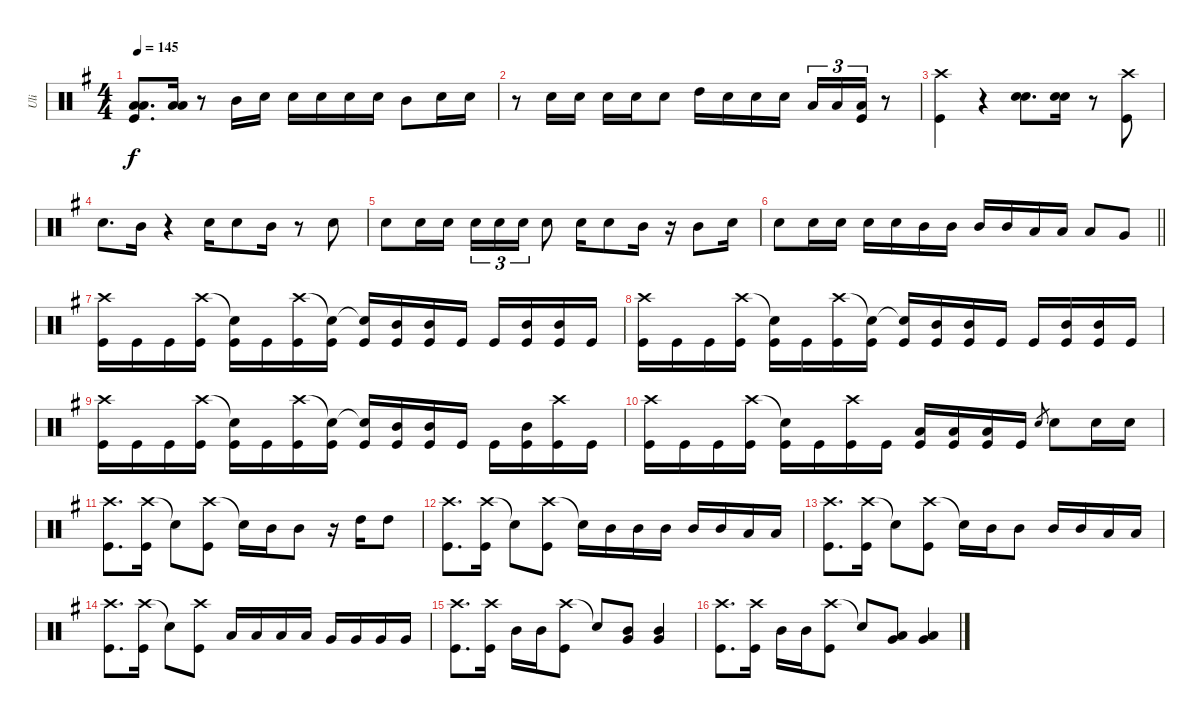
\track ("Uli" "Uli") {instrument percussion}
\staff {score}
\articulation defaults
\ts (4 4)
\tempo 145
\clef neutral
\ks eminor
("Low Tom (hit)" "Low Tom (hit)" "Kick (hit)").8{d dy f} ("Low Tom (hit)" "Low Tom (hit)").16 r.8 "Mid Tom (hit)".16 "Snare (hit) 2".16 "Snare (hit) 2".16 "Snare (hit) 2".16 "Snare (hit) 2".16 "Snare (hit) 2".16 "Mid Tom (hit)".8 "Snare (hit) 2".16 "Snare (hit) 2".16 |
r.8 "Snare (hit) 2".16 "Snare (hit) 2".16 "Snare (hit) 2".16 "Snare (hit) 2".16 "Snare (hit) 2".8 "High Tom (hit)".16 "Snare (hit) 2".16 "Snare (hit) 2".16 "Snare (hit) 2".16 "Low Tom (hit)".16{tu (3 2)} "Low Tom (hit)".16{tu (3 2)} ("Low Tom (hit)" "Kick (hit)").16{tu (3 2)} r.8 |
("Crash high (hit)" "Kick (hit)").4 r.4 ("Snare (hit) 2" "Snare (hit) 2").8{d} ("Snare (hit) 2" "Snare (hit) 2").16 r.8 ("Crash high (hit)" "Kick (hit)").8 |
"Snare (hit) 2".8{d} "Mid Tom (hit)".16 r.4 "Snare (hit) 2".16 "Snare (hit) 2".8 "Mid Tom (hit)".16 r.8 "Snare (hit) 2".8 |
"Snare (hit) 2".8 "Snare (hit) 2".16 "Snare (hit) 2".16 "Snare (hit) 2".16{tu (3 2)} "Snare (hit) 2".16{tu (3 2)} "Snare (hit) 2".16{tu (3 2)} "Snare (hit) 2".8 "Snare (hit) 2".16 "Snare (hit) 2".8 "Mid Tom (hit)".16 r.16 "Mid Tom (hit)".8 "Snare (hit) 2".16 |
\barLineRight lightlight "Snare (hit) 2".8 "Snare (hit) 2".16 "Snare (hit) 2".16 "Snare (hit) 2".16 "Snare (hit) 2".16 "Mid Tom (hit)".16 "Mid Tom (hit)".16 "Mid Tom (hit)".16 "Mid Tom (hit)".16 "Low Tom (hit)".16 "Low Tom (hit)".16 "Low Tom (hit)".8 "Very Low Tom (hit)".8
|
("Crash high (hit)" "Kick (hit)").16 "Kick (hit)".16 "Kick (hit)".16 ("Crash high (hit)" "Kick (hit)").16 ("Snare (hit)"{t} "Kick (hit)").16 "Kick (hit)".16 ("Crash high (hit)" "Kick (hit)").16 ("Snare (hit)"{t} "Kick (hit)").16 ("Snare (hit)"{t} "Kick (hit)").16 ("Mid Tom (hit)" "Kick (hit)").16 ("Mid Tom (hit)" "Kick (hit)").16 "Kick (hit)".16 "Kick (hit)".16 ("Mid Tom (hit)" "Kick (hit)").16 ("Mid Tom (hit)" "Kick (hit)").16 "Kick (hit)".16 |
("Crash high (hit)" "Kick (hit)").16 "Kick (hit)".16 "Kick (hit)".16 ("Crash high (hit)" "Kick (hit)").16 ("Snare (hit)"{t} "Kick (hit)").16 "Kick (hit)".16 ("Crash high (hit)" "Kick (hit)").16 ("Snare (hit)"{t} "Kick (hit)").16 ("Snare (hit)"{t} "Kick (hit)").16 ("Mid Tom (hit)" "Kick (hit)").16 ("Mid Tom (hit)" "Kick (hit)").16 "Kick (hit)".16 "Kick (hit)".16 ("Mid Tom (hit)" "Kick (hit)").16 ("Mid Tom (hit)" "Kick (hit)").16 "Kick (hit)".16 |
("Crash high (hit)" "Kick (hit)").16 "Kick (hit)".16 "Kick (hit)".16 ("Crash high (hit)" "Kick (hit)").16 ("Snare (hit)"{t} "Kick (hit)").16 "Kick (hit)".16 ("Crash high (hit)" "Kick (hit)").16 ("Snare (hit)"{t} "Kick (hit)").16 ("Snare (hit)"{t} "Kick (hit)").16 ("Mid Tom (hit)" "Kick (hit)").16 ("Mid Tom (hit)" "Kick (hit)").16 "Kick (hit)".16 "Kick (hit)".16 ("Mid Tom (hit)" "Kick (hit)").16 ("Crash high (hit)" "Kick (hit)").16 "Kick (hit)".16 |
("Crash high (hit)" "Kick (hit)").16 "Kick (hit)".16 "Kick (hit)".16 ("Crash high (hit)" "Kick (hit)").16 ("Snare (hit)"{t} "Kick (hit)").16 "Kick (hit)".16 ("Crash high (hit)" "Kick (hit)").16 "Kick (hit)".16 ("Low Tom (hit)" "Kick (hit)").16 ("Low Tom (hit)" "Kick (hit)").16 ("Low Tom (hit)" "Kick (hit)").16 "Kick (hit)".16 "Snare (hit) 2".8{gr} "Snare (hit) 2".8 "Snare (hit) 2".16 "Snare (hit) 2".16 |
("Crash high (hit)" "Kick (hit)").8{d} ("Crash high (hit)" "Kick (hit)").16 "Snare (hit)"{t}.8 ("Crash high (hit)" "Kick (hit)").8 "Snare (hit)"{t}.16 "Mid Tom (hit)".16 "Mid Tom (hit)".8 r.16 "High Tom (hit)".16 "High Tom (hit)".8 |
("Crash high (hit)" "Kick (hit)").8{d} ("Crash high (hit)" "Kick (hit)").16 "Snare (hit)"{t}.8 ("Crash high (hit)" "Kick (hit)").8 "Snare (hit)"{t}.16 "Mid Tom (hit)".16 "Mid Tom (hit)".16 "Mid Tom (hit)".16 "Mid Tom (hit)".16 "Mid Tom (hit)".16 "Low Tom (hit)".16 "Low Tom (hit)".16 |
("Crash high (hit)" "Kick (hit)").8{d} ("Crash high (hit)" "Kick (hit)").16 "Snare (hit)"{t}.8 ("Crash high (hit)" "Kick (hit)").8 "Snare (hit)"{t}.16 "Mid Tom (hit)".16 "Mid Tom (hit)".8 "Mid Tom (hit)".16 "Mid Tom (hit)".16 "Low Tom (hit)".16 "Low Tom (hit)".16 |
("Crash high (hit)" "Kick (hit)").8{d} ("Crash high (hit)" "Kick (hit)").16 "Snare (hit)"{t}.8 ("Crash high (hit)" "Kick (hit)").8 "Low Tom (hit)".16 "Low Tom (hit)".16 "Low Tom (hit)".16 "Low Tom (hit)".16 "Very Low Tom (hit)".16 "Very Low Tom (hit)".16 "Very Low Tom (hit)".16 "Very Low Tom (hit)".16 |
("Crash high (hit)" "Kick (hit)").8{d} ("Crash high (hit)" "Kick (hit)").16 "Mid Tom (hit)".16 "Mid Tom (hit)".16 ("Crash high (hit)" "Kick (hit)").8 "Snare (hit)"{t}.8 ("Mid Tom (hit)" "Very Low Tom (hit)").8 ("Mid Tom (hit)" "Very Low Tom (hit)").4 |
("Crash high (hit)" "Kick (hit)").8{d} ("Crash high (hit)" "Kick (hit)").16 "Mid Tom (hit)".16 "Mid Tom (hit)".16 ("Crash high (hit)" "Kick (hit)").8 "Snare (hit)"{t}.8 ("Low Tom (hit)" "Very Low Tom (hit)").8 ("Low Tom (hit)" "Very Low Tom (hit)").4
